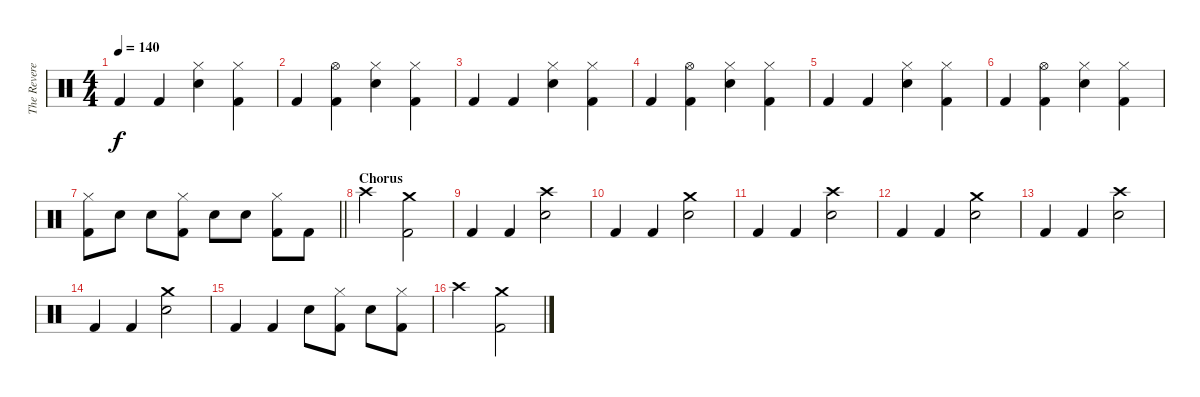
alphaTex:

\track ("The Reverend" "The Revere") {instrument percussion}
\staff {score}
\articulation defaults
\ts (4 4)
\tempo 140
\clef neutral
\ks c "Kick (hit) 2".4{dy f} "Kick (hit) 2".4
("Hi-Hat (closed)" "Snare (hit) 2").4 ("Hi-Hat (closed)" "Kick (hit) 2").4 |
"Kick (hit) 2".4 ("Hi-Hat (open)" "Kick (hit) 2").4 ("Hi-Hat (closed)" "Snare (hit) 2").4 ("Hi-Hat (closed)" "Kick (hit) 2").4 |
"Kick (hit) 2".4 "Kick (hit) 2".4 ("Hi-Hat (closed)" "Snare (hit) 2").4 ("Hi-Hat (closed)" "Kick (hit) 2").4 |
"Kick (hit) 2".4 ("Hi-Hat (open)" "Kick (hit) 2").4 ("Hi-Hat (closed)" "Snare (hit) 2").4 ("Hi-Hat (closed)" "Kick (hit) 2").4 |
"Kick (hit) 2".4 "Kick (hit) 2".4 ("Hi-Hat (closed)" "Snare (hit) 2").4 ("Hi-Hat (closed)" "Kick (hit) 2").4 |
"Kick (hit) 2".4 ("Hi-Hat (open)" "Kick (hit) 2").4 ("Hi-Hat (closed)" "Snare (hit) 2").4 ("Hi-Hat (closed)" "Kick (hit) 2").4 |
\barLineRight lightlight
("Hi-Hat (closed)" "Kick (hit) 2").8 "Snare (hit) 2".8 "Snare (hit) 2".8 ("Hi-Hat (closed)" "Kick (hit) 2").8 "Snare (hit) 2".8 "Snare (hit) 2".8 ("Hi-Hat (closed)" "Kick (hit) 2").8 "Kick (hit) 2".8 |
\section ("" "Chorus")
"Crash high (hit)".2 ("Crash medium (hit)" "Kick (hit) 2").2 |
"Kick (hit) 2".4 "Kick (hit) 2".4 ("Crash high (hit)" "Snare (hit) 2").2 |
"Kick (hit) 2".4 "Kick (hit) 2".4 ("Crash medium (hit)" "Snare (hit) 2").2 |
"Kick (hit) 2".4 "Kick (hit) 2".4 ("Crash high (hit)" "Snare (hit) 2").2 |
"Kick (hit) 2".4 "Kick (hit) 2".4 ("Crash medium (hit)" "Snare (hit) 2").2 |
"Kick (hit) 2".4 "Kick (hit) 2".4 ("Crash high (hit)" "Snare (hit) 2").2 |
"Kick (hit) 2".4 "Kick (hit) 2".4 ("Crash medium (hit)" "Snare (hit) 2").2 |
"Kick (hit) 2".4 "Kick (hit) 2".4 "Snare (hit) 2".8 ("Hi-Hat (closed)" "Kick (hit) 2").8 "Snare (hit) 2".8 ("Hi-Hat (closed)" "Kick (hit) 2").8 |
"Crash high (hit)".2 ("Crash medium (hit)" "Kick (hit) 2").2
